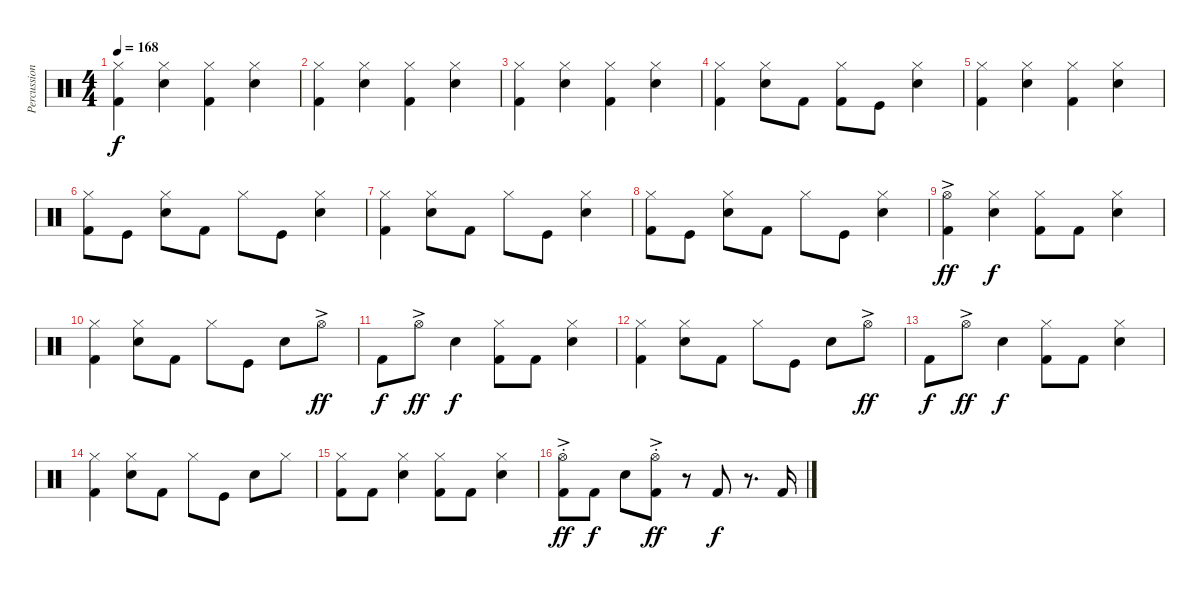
\track ("Percussion" "Percussion") {instrument percussion}
\staff {score}
\articulation defaults
\ts (4 4)
\tempo 168
\clef neutral
\ks c
("Hi-Hat (closed)" "Kick (hit) 2").4{dy f} ("Electric Snare (hit)" "Hi-Hat (closed)").4 ("Kick (hit) 2" "Hi-Hat (closed)").4 ("Snare (hit) 2" "Hi-Hat (closed)").4 |
("Hi-Hat (closed)" "Kick (hit) 2").4 ("Electric Snare (hit)" "Hi-Hat (closed)").4 ("Kick (hit) 2" "Hi-Hat (closed)").4 ("Snare (hit) 2" "Hi-Hat (closed)").4 |
("Hi-Hat (closed)" "Kick (hit) 2").4 ("Electric Snare (hit)" "Hi-Hat (closed)").4 ("Kick (hit) 2" "Hi-Hat (closed)").4 ("Snare (hit) 2" "Hi-Hat (closed)").4 |
("Hi-Hat (closed)" "Kick (hit) 2").4 ("Electric Snare (hit)" "Hi-Hat (closed)").8 "Kick (hit) 2".8 ("Kick (hit) 2" "Hi-Hat (closed)").8 "Kick (hit)".8 ("Electric Snare (hit)" "Hi-Hat (closed)").4 |
("Hi-Hat (closed)" "Kick (hit) 2").4 ("Electric Snare (hit)" "Hi-Hat (closed)").4 ("Kick (hit) 2" "Hi-Hat (closed)").4 ("Snare (hit) 2" "Hi-Hat (closed)").4 |
("Hi-Hat (closed)" "Kick (hit) 2").8 "Kick (hit)".8 ("Electric Snare (hit)" "Hi-Hat (closed)").8 "Kick (hit) 2".8 "Hi-Hat (closed)".8 "Kick (hit)".8 ("Electric Snare (hit)" "Hi-Hat (closed)").4 |
("Hi-Hat (closed)" "Kick (hit) 2").4 ("Electric Snare (hit)" "Hi-Hat (closed)").8 "Kick (hit) 2".8 "Hi-Hat (closed)".8 "Kick (hit)".8 ("Electric Snare (hit)" "Hi-Hat (closed)").4 |
("Hi-Hat (closed)" "Kick (hit) 2").8 "Kick (hit)".8 ("Electric Snare (hit)" "Hi-Hat (closed)").8 "Kick (hit) 2".8 "Hi-Hat (closed)".8 "Kick (hit)".8 ("Electric Snare (hit)" "Hi-Hat (closed)").4 |
("Hi-Hat (open)"{ac} "Kick (hit) 2").4{dy ff} ("Electric Snare (hit)" "Hi-Hat (closed)").4{dy f} ("Kick (hit) 2" "Hi-Hat (closed)").8 "Kick (hit) 2".8 ("Snare (hit) 2" "Hi-Hat (closed)").4 |
("Hi-Hat (closed)" "Kick (hit) 2").4 ("Electric Snare (hit)" "Hi-Hat (closed)").8 "Kick (hit) 2".8 "Hi-Hat (closed)".8 "Kick (hit)".8 "Electric Snare (hit)".8 "Hi-Hat (open)"{ac}.8{dy ff} |
"Kick (hit) 2".8{dy f} "Hi-Hat (open)"{ac}.8{dy ff} "Electric Snare (hit)".4{dy f} ("Kick (hit) 2" "Hi-Hat (closed)").8 "Kick (hit) 2".8 ("Snare (hit) 2" "Hi-Hat (closed)").4 |
("Hi-Hat (closed)" "Kick (hit) 2").4 ("Electric Snare (hit)" "Hi-Hat (closed)").8 "Kick (hit) 2".8 "Hi-Hat (closed)".8 "Kick (hit)".8 "Electric Snare (hit)".8 "Hi-Hat (open)"{ac}.8{dy ff} |
"Kick (hit) 2".8{dy f} "Hi-Hat (open)"{ac}.8{dy ff} "Electric Snare (hit)".4{dy f} ("Kick (hit) 2" "Hi-Hat (closed)").8 "Kick (hit) 2".8 ("Snare (hit) 2" "Hi-Hat (closed)").4 |
("Hi-Hat (closed)" "Kick (hit) 2").4 ("Electric Snare (hit)" "Hi-Hat (closed)").8 "Kick (hit) 2".8 "Hi-Hat (closed)".8 "Kick (hit)".8 "Electric Snare (hit)".8 "Hi-Hat (closed)".8 |
("Kick (hit) 2" "Hi-Hat (closed)").8 "Kick (hit) 2".8 ("Snare (hit) 2" "Hi-Hat (closed)").4 ("Kick (hit) 2" "Hi-Hat (closed)").8 "Kick (hit) 2".8 ("Snare (hit) 2" "Hi-Hat (closed)").4 |
("Kick (hit) 2" "Hi-Hat (open)"{ac st}).8{dy ff} "Kick (hit) 2".8{dy f} "Snare (hit) 2".8 ("Kick (hit) 2" "Hi-Hat (open)"{ac st}).8{dy ff} r.8 "Kick (hit) 2".8{dy f} r.8{d} "Kick (hit) 2".16
